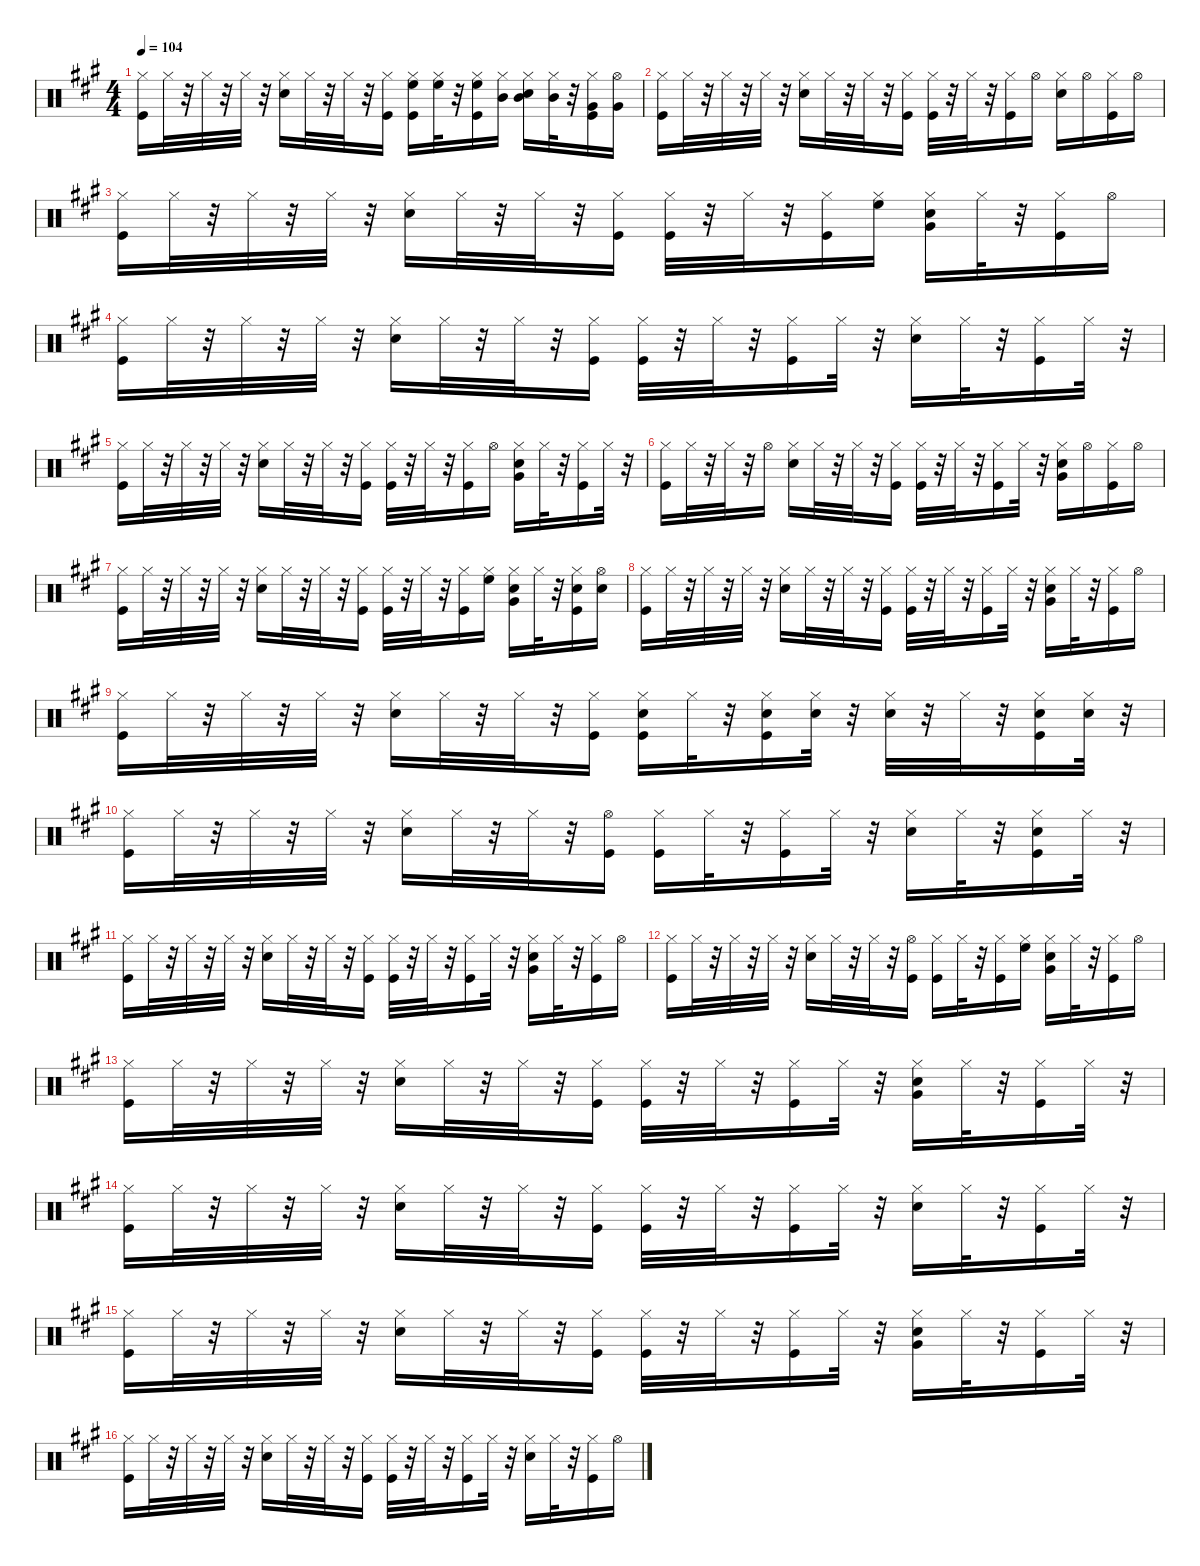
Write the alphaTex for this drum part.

\defaultSystemsLayout 4
\hideDynamics
\bracketExtendMode nobrackets
\singleTrackTrackNamePolicy hidden
\multiTrackTrackNamePolicy hidden
\otherSystemsTrackNameOrientation horizontal
\track ("Drums   " "drm.") {instrument percussion}
\staff {score}
\articulation defaults
\ts (4 4)
\tempo 104
\clef neutral
\ks a
("Kick (hit)"{acc forcenatural} "Hi-Hat (closed)"{acc forcenatural}).16{dy f beam Down} "Hi-Hat (closed)"{acc forcenatural}.32{dy mp beam Down} r.32{beam Down} "Hi-Hat (closed)"{acc forcenatural}.32{dy f beam Down} r.32{beam Down} "Hi-Hat (closed)"{acc forcenatural}.32{beam Down} r.32{beam Down} ("Snare (hit) 2"{acc forcenatural} "Hi-Hat (closed)"{acc forcenatural}).16{dy fff beam Down} "Hi-Hat (closed)"{acc forcenatural}.32{dy mp beam Down} r.32{beam Down} "Hi-Hat (closed)"{acc forcenatural}.32{dy f beam Down} r.32{beam Down} ("Kick (hit)"{acc forcenatural} "Hi-Hat (closed)"{acc forcenatural}).16{dy mf beam Down} ("Kick (hit)"{acc forcenatural} "Hi-Hat (closed)"{acc forcenatural} "High Floor Tom (hit)"{acc forcenatural}).16{dy f beam Down} ("Hi-Hat (closed)"{acc forcenatural} "High Floor Tom (hit)"{acc forcenatural}).32{dy mp beam Down} r.32{beam Down} ("Kick (hit)"{acc forcenatural} "Hi-Hat (closed)"{acc forcenatural} "High Floor Tom (hit)"{acc forcenatural}).16{dy f beam Down} ("Hi-Hat (closed)"{acc forcenatural} "Mid Tom (hit)"{acc forcenatural}).16{beam Down} ("Snare (hit) 2"{acc forcenatural} "Hi-Hat (closed)"{acc forcenatural} "Mid Tom (hit)"{acc forcenatural}).16{dy fff beam Down} ("Hi-Hat (closed)"{acc forcenatural} "Mid Tom (hit)"{acc forcenatural}).32{dy mp beam Down} r.32{beam Down} ("Kick (hit)"{acc forcenatural} "Hi-Hat (closed)"{acc forcenatural} "Very Low Tom (hit)"{acc forcenatural}).16{dy f beam Down} ("Very Low Tom (hit)"{acc forcenatural} "Hi-Hat (open)"{acc forcenatural}).16{beam Down} |
("Kick (hit)"{acc forcenatural} "Hi-Hat (closed)"{acc forcenatural}).16{beam Down} "Hi-Hat (closed)"{acc forcenatural}.32{dy mp beam Down} r.32{beam Down} "Hi-Hat (closed)"{acc forcenatural}.32{dy f beam Down} r.32{beam Down} "Hi-Hat (closed)"{acc forcenatural}.32{beam Down} r.32{beam Down} ("Snare (hit) 2"{acc forcenatural} "Hi-Hat (closed)"{acc forcenatural}).16{dy fff beam Down} "Hi-Hat (closed)"{acc forcenatural}.32{dy mp beam Down} r.32{beam Down} "Hi-Hat (closed)"{acc forcenatural}.32{dy f beam Down} r.32{beam Down} ("Kick (hit)"{acc forcenatural} "Hi-Hat (closed)"{acc forcenatural}).16{dy mf beam Down} ("Kick (hit)"{acc forcenatural} "Hi-Hat (closed)"{acc forcenatural}).32{dy f beam Down} r.32{beam Down} "Hi-Hat (closed)"{acc forcenatural}.32{dy mp beam Down} r.32{beam Down} ("Kick (hit)"{acc forcenatural} "Hi-Hat (closed)"{acc forcenatural}).16{dy f beam Down} "Hi-Hat (open)"{acc forcenatural}.16{beam Down} ("Snare (hit) 2"{acc forcenatural} "Hi-Hat (closed)"{acc forcenatural}).16{dy fff beam Down} "Hi-Hat (open)"{acc forcenatural}.16{dy mp beam Down} ("Kick (hit)"{acc forcenatural} "Hi-Hat (closed)"{acc forcenatural}).16{dy f beam Down} "Hi-Hat (open)"{acc forcenatural}.16{beam Down} |
("Kick (hit)"{acc forcenatural} "Hi-Hat (closed)"{acc forcenatural}).16{beam Down} "Hi-Hat (closed)"{acc forcenatural}.32{dy mp beam Down} r.32{beam Down} "Hi-Hat (closed)"{acc forcenatural}.32{dy f beam Down} r.32{beam Down} "Hi-Hat (closed)"{acc forcenatural}.32{beam Down} r.32{beam Down} ("Snare (hit) 2"{acc forcenatural} "Hi-Hat (closed)"{acc forcenatural}).16{dy fff beam Down} "Hi-Hat (closed)"{acc forcenatural}.32{dy mp beam Down} r.32{beam Down} "Hi-Hat (closed)"{acc forcenatural}.32{dy f beam Down} r.32{beam Down} ("Kick (hit)"{acc forcenatural} "Hi-Hat (closed)"{acc forcenatural}).16{dy mf beam Down} ("Kick (hit)"{acc forcenatural} "Hi-Hat (closed)"{acc forcenatural}).32{dy f beam Down} r.32{beam Down} "Hi-Hat (closed)"{acc forcenatural}.32{dy mp beam Down} r.32{beam Down} ("Kick (hit)"{acc forcenatural} "Hi-Hat (closed)"{acc forcenatural}).16{dy f beam Down} ("Hi-Hat (closed)"{acc forcenatural} "High Floor Tom (hit)"{acc forcenatural}).16{beam Down} ("Snare (hit) 2"{acc forcenatural} "Hi-Hat (closed)"{acc forcenatural} "Very Low Tom (hit)"{acc forcenatural}).16{dy fff beam Down} "Hi-Hat (closed)"{acc forcenatural}.32{dy mp beam Down} r.32{beam Down} ("Kick (hit)"{acc forcenatural} "Hi-Hat (closed)"{acc forcenatural}).16{dy f beam Down} "Hi-Hat (open)"{acc forcenatural}.16{beam Down} |
("Kick (hit)"{acc forcenatural} "Hi-Hat (closed)"{acc forcenatural}).16{beam Down} "Hi-Hat (closed)"{acc forcenatural}.32{dy mp beam Down} r.32{beam Down} "Hi-Hat (closed)"{acc forcenatural}.32{dy f beam Down} r.32{beam Down} "Hi-Hat (closed)"{acc forcenatural}.32{beam Down} r.32{beam Down} ("Snare (hit) 2"{acc forcenatural} "Hi-Hat (closed)"{acc forcenatural}).16{dy fff beam Down} "Hi-Hat (closed)"{acc forcenatural}.32{dy mp beam Down} r.32{beam Down} "Hi-Hat (closed)"{acc forcenatural}.32{dy f beam Down} r.32{beam Down} ("Kick (hit)"{acc forcenatural} "Hi-Hat (closed)"{acc forcenatural}).16{dy mf beam Down} ("Kick (hit)"{acc forcenatural} "Hi-Hat (closed)"{acc forcenatural}).32{dy f beam Down} r.32{beam Down} "Hi-Hat (closed)"{acc forcenatural}.32{dy mp beam Down} r.32{beam Down} ("Kick (hit)"{acc forcenatural} "Hi-Hat (closed)"{acc forcenatural}).16{dy f beam Down} "Hi-Hat (closed)"{acc forcenatural}.32{beam Down} r.32{beam Down} ("Snare (hit) 2"{acc forcenatural} "Hi-Hat (closed)"{acc forcenatural}).16{dy fff beam Down} "Hi-Hat (closed)"{acc forcenatural}.32{dy mp beam Down} r.32{beam Down} ("Kick (hit)"{acc forcenatural} "Hi-Hat (closed)"{acc forcenatural}).16{dy f beam Down} "Hi-Hat (closed)"{acc forcenatural}.32{beam Down} r.32{beam Down} |
("Kick (hit)"{acc forcenatural} "Hi-Hat (closed)"{acc forcenatural}).16{beam Down} "Hi-Hat (closed)"{acc forcenatural}.32{dy mp beam Down} r.32{beam Down} "Hi-Hat (closed)"{acc forcenatural}.32{dy f beam Down} r.32{beam Down} "Hi-Hat (closed)"{acc forcenatural}.32{beam Down} r.32{beam Down} ("Snare (hit) 2"{acc forcenatural} "Hi-Hat (closed)"{acc forcenatural}).16{dy fff beam Down} "Hi-Hat (closed)"{acc forcenatural}.32{dy mp beam Down} r.32{beam Down} "Hi-Hat (closed)"{acc forcenatural}.32{dy f beam Down} r.32{beam Down} ("Kick (hit)"{acc forcenatural} "Hi-Hat (closed)"{acc forcenatural}).16{dy mf beam Down} ("Kick (hit)"{acc forcenatural} "Hi-Hat (closed)"{acc forcenatural}).32{dy f beam Down} r.32{beam Down} "Hi-Hat (closed)"{acc forcenatural}.32{dy mp beam Down} r.32{beam Down} ("Kick (hit)"{acc forcenatural} "Hi-Hat (closed)"{acc forcenatural}).16{dy f beam Down} "Hi-Hat (open)"{acc forcenatural}.16{beam Down} ("Snare (hit) 2"{acc forcenatural} "Hi-Hat (closed)"{acc forcenatural} "Very Low Tom (hit)"{acc forcenatural}).16{dy fff beam Down} "Hi-Hat (closed)"{acc forcenatural}.32{dy mp beam Down} r.32{beam Down} ("Kick (hit)"{acc forcenatural} "Hi-Hat (closed)"{acc forcenatural}).16{dy f beam Down} "Hi-Hat (closed)"{acc forcenatural}.32{beam Down} r.32{beam Down} |
("Kick (hit)"{acc forcenatural} "Hi-Hat (closed)"{acc forcenatural}).16{beam Down} "Hi-Hat (closed)"{acc forcenatural}.32{dy mp beam Down} r.32{beam Down} "Hi-Hat (closed)"{acc forcenatural}.32{dy f beam Down} r.32{beam Down} "Hi-Hat (open)"{acc forcenatural}.16{beam Down} ("Snare (hit) 2"{acc forcenatural} "Hi-Hat (closed)"{acc forcenatural}).16{dy fff beam Down} "Hi-Hat (closed)"{acc forcenatural}.32{dy mp beam Down} r.32{beam Down} "Hi-Hat (closed)"{acc forcenatural}.32{dy f beam Down} r.32{beam Down} ("Kick (hit)"{acc forcenatural} "Hi-Hat (closed)"{acc forcenatural}).16{dy mf beam Down} ("Kick (hit)"{acc forcenatural} "Hi-Hat (closed)"{acc forcenatural}).32{dy f beam Down} r.32{beam Down} "Hi-Hat (closed)"{acc forcenatural}.32{dy mp beam Down} r.32{beam Down} ("Kick (hit)"{acc forcenatural} "Hi-Hat (closed)"{acc forcenatural}).16{dy f beam Down} "Hi-Hat (closed)"{acc forcenatural}.32{beam Down} r.32{beam Down} ("Snare (hit) 2"{acc forcenatural} "Hi-Hat (closed)"{acc forcenatural} "Very Low Tom (hit)"{acc forcenatural}).16{dy fff beam Down} "Hi-Hat (open)"{acc forcenatural}.16{dy mp beam Down} ("Kick (hit)"{acc forcenatural} "Hi-Hat (closed)"{acc forcenatural}).16{dy f beam Down} "Hi-Hat (open)"{acc forcenatural}.16{beam Down} |
("Kick (hit)"{acc forcenatural} "Hi-Hat (closed)"{acc forcenatural}).16{beam Down} "Hi-Hat (closed)"{acc forcenatural}.32{dy mp beam Down} r.32{beam Down} "Hi-Hat (closed)"{acc forcenatural}.32{dy f beam Down} r.32{beam Down} "Hi-Hat (closed)"{acc forcenatural}.32{beam Down} r.32{beam Down} ("Snare (hit) 2"{acc forcenatural} "Hi-Hat (closed)"{acc forcenatural}).16{dy fff beam Down} "Hi-Hat (closed)"{acc forcenatural}.32{dy mp beam Down} r.32{beam Down} "Hi-Hat (closed)"{acc forcenatural}.32{dy f beam Down} r.32{beam Down} ("Kick (hit)"{acc forcenatural} "Hi-Hat (closed)"{acc forcenatural}).16{dy mf beam Down} ("Kick (hit)"{acc forcenatural} "Hi-Hat (closed)"{acc forcenatural}).32{dy f beam Down} r.32{beam Down} "Hi-Hat (closed)"{acc forcenatural}.32{dy mp beam Down} r.32{beam Down} ("Kick (hit)"{acc forcenatural} "Hi-Hat (closed)"{acc forcenatural}).16{dy f beam Down} ("Hi-Hat (closed)"{acc forcenatural} "High Floor Tom (hit)"{acc forcenatural}).16{beam Down} ("Snare (hit) 2"{acc forcenatural} "Hi-Hat (closed)"{acc forcenatural} "Very Low Tom (hit)"{acc forcenatural}).16{dy fff beam Down} "Hi-Hat (closed)"{acc forcenatural}.32{dy mp beam Down} r.32{beam Down} ("Kick (hit)"{acc forcenatural} "Snare (hit) 2"{acc forcenatural} "Hi-Hat (closed)"{acc forcenatural}).16{dy f beam Down} ("Snare (hit) 2"{acc forcenatural} "Hi-Hat (open)"{acc forcenatural}).16{beam Down} |
("Kick (hit)"{acc forcenatural} "Hi-Hat (closed)"{acc forcenatural}).16{beam Down} "Hi-Hat (closed)"{acc forcenatural}.32{dy mp beam Down} r.32{beam Down} "Hi-Hat (closed)"{acc forcenatural}.32{dy f beam Down} r.32{beam Down} "Hi-Hat (closed)"{acc forcenatural}.32{beam Down} r.32{beam Down} ("Snare (hit) 2"{acc forcenatural} "Hi-Hat (closed)"{acc forcenatural}).16{dy fff beam Down} "Hi-Hat (closed)"{acc forcenatural}.32{dy mp beam Down} r.32{beam Down} "Hi-Hat (closed)"{acc forcenatural}.32{dy f beam Down} r.32{beam Down} ("Kick (hit)"{acc forcenatural} "Hi-Hat (closed)"{acc forcenatural}).16{dy mf beam Down} ("Kick (hit)"{acc forcenatural} "Hi-Hat (closed)"{acc forcenatural}).32{dy f beam Down} r.32{beam Down} "Hi-Hat (closed)"{acc forcenatural}.32{dy mp beam Down} r.32{beam Down} ("Kick (hit)"{acc forcenatural} "Hi-Hat (closed)"{acc forcenatural}).16{dy f beam Down} "Hi-Hat (closed)"{acc forcenatural}.32{beam Down} r.32{beam Down} ("Snare (hit) 2"{acc forcenatural} "Hi-Hat (closed)"{acc forcenatural} "Very Low Tom (hit)"{acc forcenatural}).16{dy fff beam Down} "Hi-Hat (closed)"{acc forcenatural}.32{dy mp beam Down} r.32{beam Down} ("Kick (hit)"{acc forcenatural} "Hi-Hat (closed)"{acc forcenatural}).16{dy f beam Down} "Hi-Hat (open)"{acc forcenatural}.16{beam Down} |
("Kick (hit)"{acc forcenatural} "Hi-Hat (closed)"{acc forcenatural}).16{beam Down} "Hi-Hat (closed)"{acc forcenatural}.32{dy mp beam Down} r.32{beam Down} "Hi-Hat (closed)"{acc forcenatural}.32{dy f beam Down} r.32{beam Down} "Hi-Hat (closed)"{acc forcenatural}.32{beam Down} r.32{beam Down} ("Snare (hit) 2"{acc forcenatural} "Hi-Hat (closed)"{acc forcenatural}).16{dy fff beam Down} "Hi-Hat (closed)"{acc forcenatural}.32{dy mp beam Down} r.32{beam Down} "Hi-Hat (closed)"{acc forcenatural}.32{dy f beam Down} r.32{beam Down} ("Kick (hit)"{acc forcenatural} "Hi-Hat (closed)"{acc forcenatural}).16{dy mf beam Down} ("Kick (hit)"{acc forcenatural} "Snare (hit) 2"{acc forcenatural} "Hi-Hat (closed)"{acc forcenatural}).16{dy f beam Down} "Hi-Hat (closed)"{acc forcenatural}.32{dy mp beam Down} r.32{beam Down} ("Kick (hit)"{acc forcenatural} "Snare (hit) 2"{acc forcenatural} "Hi-Hat (closed)"{acc forcenatural}).16{dy f beam Down} ("Snare (hit) 2"{acc forcenatural} "Hi-Hat (closed)"{acc forcenatural}).32{beam Down} r.32{beam Down} ("Snare (hit) 2"{acc forcenatural} "Hi-Hat (closed)"{acc forcenatural}).32{dy fff beam Down} r.32{beam Down} "Hi-Hat (closed)"{acc forcenatural}.32{dy mp beam Down} r.32{beam Down} ("Kick (hit)"{acc forcenatural} "Snare (hit) 2"{acc forcenatural} "Hi-Hat (closed)"{acc forcenatural}).16{dy f beam Down} ("Snare (hit) 2"{acc forcenatural} "Hi-Hat (closed)"{acc forcenatural}).32{dy ff beam Down} r.32{beam Down} |
("Kick (hit)"{acc forcenatural} "Hi-Hat (closed)"{acc forcenatural}).16{dy f beam Down} "Hi-Hat (closed)"{acc forcenatural}.32{dy mp beam Down} r.32{beam Down} "Hi-Hat (closed)"{acc forcenatural}.32{dy f beam Down} r.32{beam Down} "Hi-Hat (closed)"{acc forcenatural}.32{beam Down} r.32{beam Down} ("Snare (hit) 2"{acc forcenatural} "Hi-Hat (closed)"{acc forcenatural}).16{dy fff beam Down} "Hi-Hat (closed)"{acc forcenatural}.32{dy mp beam Down} r.32{beam Down} "Hi-Hat (closed)"{acc forcenatural}.32{dy f beam Down} r.32{beam Down} ("Kick (hit)"{acc forcenatural} "Hi-Hat (open)"{acc forcenatural}).16{dy mf beam Down} ("Kick (hit)"{acc forcenatural} "Hi-Hat (closed)"{acc forcenatural}).16{dy f beam Down} "Hi-Hat (closed)"{acc forcenatural}.32{dy mp beam Down} r.32{beam Down} ("Kick (hit)"{acc forcenatural} "Hi-Hat (closed)"{acc forcenatural}).16{dy f beam Down} "Hi-Hat (closed)"{acc forcenatural}.32{beam Down} r.32{beam Down} ("Snare (hit) 2"{acc forcenatural} "Hi-Hat (closed)"{acc forcenatural}).16{dy fff beam Down} "Hi-Hat (closed)"{acc forcenatural}.32{dy mp beam Down} r.32{beam Down} ("Kick (hit)"{acc forcenatural} "Snare (hit) 2"{acc forcenatural} "Hi-Hat (closed)"{acc forcenatural}).16{dy f beam Down} "Hi-Hat (closed)"{acc forcenatural}.32{beam Down} r.32{beam Down} |
("Kick (hit)"{acc forcenatural} "Hi-Hat (closed)"{acc forcenatural}).16{beam Down} "Hi-Hat (closed)"{acc forcenatural}.32{dy mp beam Down} r.32{beam Down} "Hi-Hat (closed)"{acc forcenatural}.32{dy f beam Down} r.32{beam Down} "Hi-Hat (closed)"{acc forcenatural}.32{beam Down} r.32{beam Down} ("Snare (hit) 2"{acc forcenatural} "Hi-Hat (closed)"{acc forcenatural}).16{dy fff beam Down} "Hi-Hat (closed)"{acc forcenatural}.32{dy mp beam Down} r.32{beam Down} "Hi-Hat (closed)"{acc forcenatural}.32{dy f beam Down} r.32{beam Down} ("Kick (hit)"{acc forcenatural} "Hi-Hat (closed)"{acc forcenatural}).16{dy mf beam Down} ("Kick (hit)"{acc forcenatural} "Hi-Hat (closed)"{acc forcenatural}).32{dy f beam Down} r.32{beam Down} "Hi-Hat (closed)"{acc forcenatural}.32{dy mp beam Down} r.32{beam Down} ("Kick (hit)"{acc forcenatural} "Hi-Hat (closed)"{acc forcenatural}).16{dy f beam Down} "Hi-Hat (closed)"{acc forcenatural}.32{beam Down} r.32{beam Down} ("Snare (hit) 2"{acc forcenatural} "Hi-Hat (closed)"{acc forcenatural} "Very Low Tom (hit)"{acc forcenatural}).16{dy fff beam Down} "Hi-Hat (closed)"{acc forcenatural}.32{dy mp beam Down} r.32{beam Down} ("Kick (hit)"{acc forcenatural} "Hi-Hat (closed)"{acc forcenatural}).16{dy f beam Down} "Hi-Hat (open)"{acc forcenatural}.16{beam Down} |
("Kick (hit)"{acc forcenatural} "Hi-Hat (closed)"{acc forcenatural}).16{beam Down} "Hi-Hat (closed)"{acc forcenatural}.32{dy mp beam Down} r.32{beam Down} "Hi-Hat (closed)"{acc forcenatural}.32{dy f beam Down} r.32{beam Down} "Hi-Hat (closed)"{acc forcenatural}.32{beam Down} r.32{beam Down} ("Snare (hit) 2"{acc forcenatural} "Hi-Hat (closed)"{acc forcenatural}).16{dy fff beam Down} "Hi-Hat (closed)"{acc forcenatural}.32{dy mp beam Down} r.32{beam Down} "Hi-Hat (closed)"{acc forcenatural}.32{dy f beam Down} r.32{beam Down} ("Kick (hit)"{acc forcenatural} "Hi-Hat (open)"{acc forcenatural}).16{dy mf beam Down} ("Kick (hit)"{acc forcenatural} "Hi-Hat (closed)"{acc forcenatural}).16{dy f beam Down} "Hi-Hat (closed)"{acc forcenatural}.32{dy mp beam Down} r.32{beam Down} ("Kick (hit)"{acc forcenatural} "Hi-Hat (closed)"{acc forcenatural}).16{dy f beam Down} ("Hi-Hat (closed)"{acc forcenatural} "High Floor Tom (hit)"{acc forcenatural}).16{beam Down} ("Snare (hit) 2"{acc forcenatural} "Hi-Hat (closed)"{acc forcenatural} "Very Low Tom (hit)"{acc forcenatural}).16{dy fff beam Down} "Hi-Hat (closed)"{acc forcenatural}.32{dy mp beam Down} r.32{beam Down} ("Kick (hit)"{acc forcenatural} "Hi-Hat (closed)"{acc forcenatural}).16{dy f beam Down} "Hi-Hat (open)"{acc forcenatural}.16{beam Down} |
("Kick (hit)"{acc forcenatural} "Hi-Hat (closed)"{acc forcenatural}).16{beam Down} "Hi-Hat (closed)"{acc forcenatural}.32{dy mp beam Down} r.32{beam Down} "Hi-Hat (closed)"{acc forcenatural}.32{dy f beam Down} r.32{beam Down} "Hi-Hat (closed)"{acc forcenatural}.32{beam Down} r.32{beam Down} ("Snare (hit) 2"{acc forcenatural} "Hi-Hat (closed)"{acc forcenatural}).16{dy fff beam Down} "Hi-Hat (closed)"{acc forcenatural}.32{dy mp beam Down} r.32{beam Down} "Hi-Hat (closed)"{acc forcenatural}.32{dy f beam Down} r.32{beam Down} ("Kick (hit)"{acc forcenatural} "Hi-Hat (closed)"{acc forcenatural}).16{dy mf beam Down} ("Kick (hit)"{acc forcenatural} "Hi-Hat (closed)"{acc forcenatural}).32{dy f beam Down} r.32{beam Down} "Hi-Hat (closed)"{acc forcenatural}.32{dy mp beam Down} r.32{beam Down} ("Kick (hit)"{acc forcenatural} "Hi-Hat (closed)"{acc forcenatural}).16{dy f beam Down} "Hi-Hat (closed)"{acc forcenatural}.32{beam Down} r.32{beam Down} ("Snare (hit) 2"{acc forcenatural} "Hi-Hat (closed)"{acc forcenatural} "Very Low Tom (hit)"{acc forcenatural}).16{dy fff beam Down} "Hi-Hat (closed)"{acc forcenatural}.32{dy mp beam Down} r.32{beam Down} ("Kick (hit)"{acc forcenatural} "Hi-Hat (closed)"{acc forcenatural}).16{dy f beam Down} "Hi-Hat (closed)"{acc forcenatural}.32{beam Down} r.32{beam Down} |
("Kick (hit)"{acc forcenatural} "Hi-Hat (closed)"{acc forcenatural}).16{beam Down} "Hi-Hat (closed)"{acc forcenatural}.32{dy mp beam Down} r.32{beam Down} "Hi-Hat (closed)"{acc forcenatural}.32{dy f beam Down} r.32{beam Down} "Hi-Hat (closed)"{acc forcenatural}.32{beam Down} r.32{beam Down} ("Snare (hit) 2"{acc forcenatural} "Hi-Hat (closed)"{acc forcenatural}).16{dy fff beam Down} "Hi-Hat (closed)"{acc forcenatural}.32{dy mp beam Down} r.32{beam Down} "Hi-Hat (closed)"{acc forcenatural}.32{dy f beam Down} r.32{beam Down} ("Kick (hit)"{acc forcenatural} "Hi-Hat (closed)"{acc forcenatural}).16{dy mf beam Down} ("Kick (hit)"{acc forcenatural} "Hi-Hat (closed)"{acc forcenatural}).32{dy f beam Down} r.32{beam Down} "Hi-Hat (closed)"{acc forcenatural}.32{dy mp beam Down} r.32{beam Down} ("Kick (hit)"{acc forcenatural} "Hi-Hat (closed)"{acc forcenatural}).16{dy f beam Down} "Hi-Hat (closed)"{acc forcenatural}.32{beam Down} r.32{beam Down} ("Snare (hit) 2"{acc forcenatural} "Hi-Hat (closed)"{acc forcenatural}).16{dy fff beam Down} "Hi-Hat (closed)"{acc forcenatural}.32{dy mp beam Down} r.32{beam Down} ("Kick (hit)"{acc forcenatural} "Hi-Hat (closed)"{acc forcenatural}).16{dy f beam Down} "Hi-Hat (closed)"{acc forcenatural}.32{beam Down} r.32{beam Down} |
("Kick (hit)"{acc forcenatural} "Hi-Hat (closed)"{acc forcenatural}).16{beam Down} "Hi-Hat (closed)"{acc forcenatural}.32{dy mp beam Down} r.32{beam Down} "Hi-Hat (closed)"{acc forcenatural}.32{dy f beam Down} r.32{beam Down} "Hi-Hat (closed)"{acc forcenatural}.32{beam Down} r.32{beam Down} ("Snare (hit) 2"{acc forcenatural} "Hi-Hat (closed)"{acc forcenatural}).16{dy fff beam Down} "Hi-Hat (closed)"{acc forcenatural}.32{dy mp beam Down} r.32{beam Down} "Hi-Hat (closed)"{acc forcenatural}.32{dy f beam Down} r.32{beam Down} ("Kick (hit)"{acc forcenatural} "Hi-Hat (closed)"{acc forcenatural}).16{dy mf beam Down} ("Kick (hit)"{acc forcenatural} "Hi-Hat (closed)"{acc forcenatural}).32{dy f beam Down} r.32{beam Down} "Hi-Hat (closed)"{acc forcenatural}.32{dy mp beam Down} r.32{beam Down} ("Kick (hit)"{acc forcenatural} "Hi-Hat (closed)"{acc forcenatural}).16{dy f beam Down} "Hi-Hat (closed)"{acc forcenatural}.32{beam Down} r.32{beam Down} ("Snare (hit) 2"{acc forcenatural} "Hi-Hat (closed)"{acc forcenatural} "Very Low Tom (hit)"{acc forcenatural}).16{dy fff beam Down} "Hi-Hat (closed)"{acc forcenatural}.32{dy mp beam Down} r.32{beam Down} ("Kick (hit)"{acc forcenatural} "Hi-Hat (closed)"{acc forcenatural}).16{dy f beam Down} "Hi-Hat (closed)"{acc forcenatural}.32{beam Down} r.32{beam Down} |
("Kick (hit)"{acc forcenatural} "Hi-Hat (closed)"{acc forcenatural}).16{beam Down} "Hi-Hat (closed)"{acc forcenatural}.32{dy mp beam Down} r.32{beam Down} "Hi-Hat (closed)"{acc forcenatural}.32{dy f beam Down} r.32{beam Down} "Hi-Hat (closed)"{acc forcenatural}.32{beam Down} r.32{beam Down} ("Snare (hit) 2"{acc forcenatural} "Hi-Hat (closed)"{acc forcenatural}).16{dy fff beam Down} "Hi-Hat (closed)"{acc forcenatural}.32{dy mp beam Down} r.32{beam Down} "Hi-Hat (closed)"{acc forcenatural}.32{dy f beam Down} r.32{beam Down} ("Kick (hit)"{acc forcenatural} "Hi-Hat (closed)"{acc forcenatural}).16{dy mf beam Down} ("Kick (hit)"{acc forcenatural} "Hi-Hat (closed)"{acc forcenatural}).32{dy f beam Down} r.32{beam Down} "Hi-Hat (closed)"{acc forcenatural}.32{dy mp beam Down} r.32{beam Down} ("Kick (hit)"{acc forcenatural} "Hi-Hat (closed)"{acc forcenatural}).16{dy f beam Down} "Hi-Hat (closed)"{acc forcenatural}.32{beam Down} r.32{beam Down} ("Snare (hit) 2"{acc forcenatural} "Hi-Hat (closed)"{acc forcenatural}).16{dy fff beam Down} "Hi-Hat (closed)"{acc forcenatural}.32{dy mp beam Down} r.32{beam Down} ("Kick (hit)"{acc forcenatural} "Hi-Hat (closed)"{acc forcenatural}).16{dy f beam Down} "Hi-Hat (open)"{acc forcenatural}.16{beam Down}
